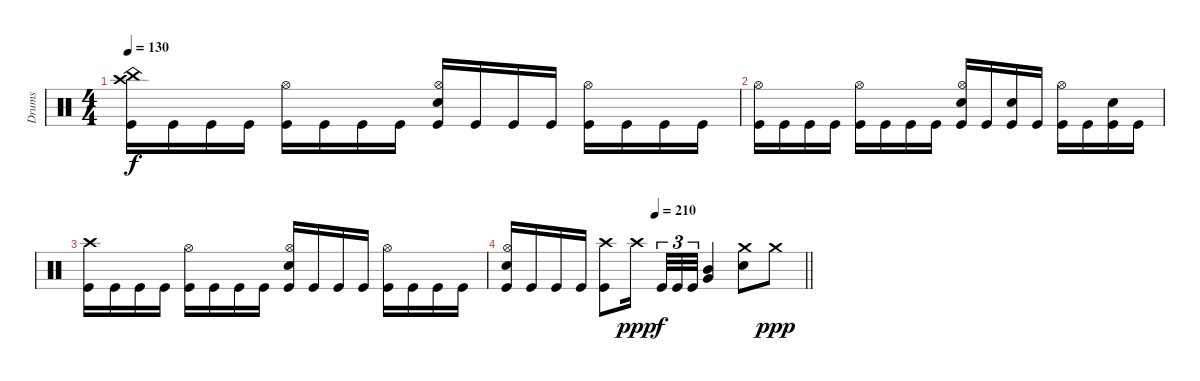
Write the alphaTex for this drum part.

\track ("Drums" "Drums") {instrument percussion}
\staff {score}
\articulation defaults
\ts (4 4)
\tempo 130
\clef neutral
\ks c
("Kick (hit)" "China (hit)" "Crash high (hit)").16{dy f} "Kick (hit)".16 "Kick (hit)".16 "Kick (hit)".16 ("Kick (hit)" "Hi-Hat (open)").16 "Kick (hit)".16 "Kick (hit)".16 "Kick (hit)".16 ("Kick (hit)" "Electric Snare (hit)" "Hi-Hat (open)").16 "Kick (hit)".16 "Kick (hit)".16 "Kick (hit)".16 ("Kick (hit)" "Hi-Hat (open)").16 "Kick (hit)".16 "Kick (hit)".16 "Kick (hit)".16 |
("Kick (hit)" "Hi-Hat (open)").16 "Kick (hit)".16 "Kick (hit)".16 "Kick (hit)".16 ("Kick (hit)" "Hi-Hat (open)").16 "Kick (hit)".16 "Kick (hit)".16 "Kick (hit)".16 ("Kick (hit)" "Electric Snare (hit)" "Hi-Hat (open)").16 "Kick (hit)".16 ("Kick (hit)" "Electric Snare (hit)").16 "Kick (hit)".16 ("Kick (hit)" "Hi-Hat (open)").16 "Kick (hit)".16 ("Kick (hit)" "Electric Snare (hit)").16 "Kick (hit)".16 |
("Kick (hit)" "Crash high (hit)").16 "Kick (hit)".16 "Kick (hit)".16 "Kick (hit)".16 ("Kick (hit)" "Hi-Hat (open)").16 "Kick (hit)".16 "Kick (hit)".16 "Kick (hit)".16 ("Kick (hit)" "Electric Snare (hit)" "Hi-Hat (open)").16 "Kick (hit)".16 "Kick (hit)".16 "Kick (hit)".16 ("Kick (hit)" "Hi-Hat (open)").16 "Kick (hit)".16 "Kick (hit)".16 "Kick (hit)".16 |
\tempo (210 0.5)
\barLineRight lightlight
("Kick (hit)" "Electric Snare (hit)" "Hi-Hat (open)").16 "Kick (hit)".16 "Kick (hit)".16 "Kick (hit)".16 ("Kick (hit)" "Crash high (hit)").8 "Crash high (hit)".16{dy ppp beam splitsecondary} "Kick (hit)".32{tu (3 2) dy f} "Kick (hit)".32{tu (3 2)} "Kick (hit)".32{tu (3 2)} ("Very Low Tom (hit)" "Mid Tom (hit)").4 ("Electric Snare (hit)" "Crash medium (hit)").8 "Crash medium (hit)".8{dy ppp}
